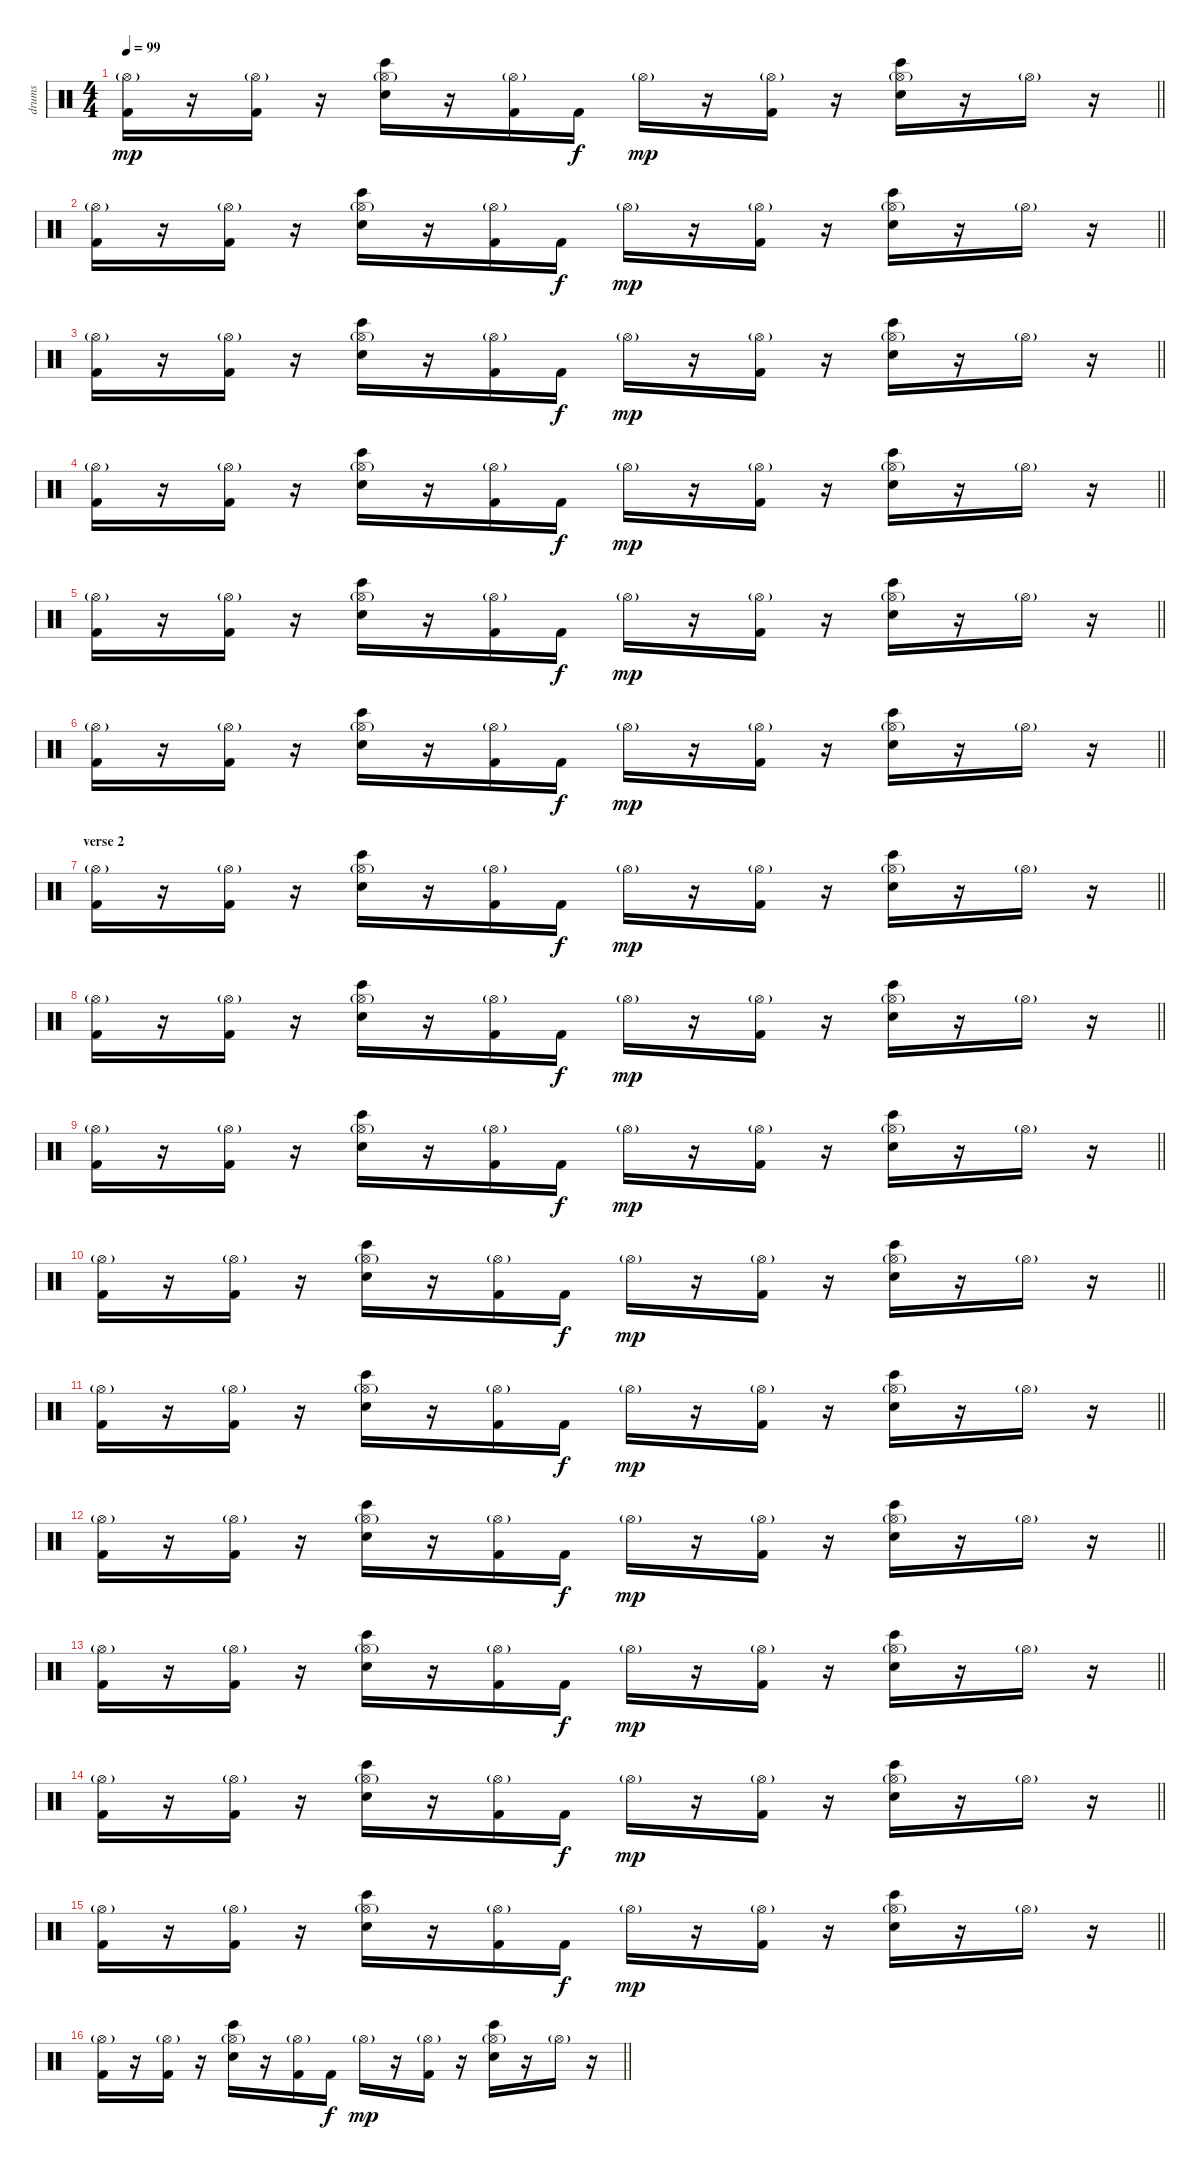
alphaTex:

\track ("drums" "drums") {instrument percussion}
\staff {score}
\articulation defaults
\ts (4 4)
\tempo 99
\clef neutral
\barLineRight lightlight
\ks c
("Kick (hit) 2" "Hi-Hat (open)"{g}).16{dy mp} r.16 ("Kick (hit) 2" "Hi-Hat (open)"{g}).16 r.16 ("Bongo High (hit)" "Hand Clap (hit)" "Hi-Hat (open)"{g}).16 r.16 ("Kick (hit) 2" "Hi-Hat (open)"{g}).16 "Kick (hit) 2".16{dy f} "Hi-Hat (open)"{g}.16{dy mp} r.16 ("Kick (hit) 2" "Hi-Hat (open)"{g}).16 r.16 ("Bongo High (hit)" "Hand Clap (hit)" "Hi-Hat (open)"{g}).16 r.16 "Hi-Hat (open)"{g}.16 r.16 |
\barLineRight lightlight
("Kick (hit) 2" "Hi-Hat (open)"{g}).16 r.16 ("Kick (hit) 2" "Hi-Hat (open)"{g}).16 r.16 ("Bongo High (hit)" "Hand Clap (hit)" "Hi-Hat (open)"{g}).16 r.16 ("Kick (hit) 2" "Hi-Hat (open)"{g}).16 "Kick (hit) 2".16{dy f} "Hi-Hat (open)"{g}.16{dy mp} r.16 ("Kick (hit) 2" "Hi-Hat (open)"{g}).16 r.16 ("Bongo High (hit)" "Hand Clap (hit)" "Hi-Hat (open)"{g}).16 r.16 "Hi-Hat (open)"{g}.16 r.16 |
\barLineRight lightlight
("Kick (hit) 2" "Hi-Hat (open)"{g}).16 r.16 ("Kick (hit) 2" "Hi-Hat (open)"{g}).16 r.16 ("Bongo High (hit)" "Hand Clap (hit)" "Hi-Hat (open)"{g}).16 r.16 ("Kick (hit) 2" "Hi-Hat (open)"{g}).16 "Kick (hit) 2".16{dy f} "Hi-Hat (open)"{g}.16{dy mp} r.16 ("Kick (hit) 2" "Hi-Hat (open)"{g}).16 r.16 ("Bongo High (hit)" "Hand Clap (hit)" "Hi-Hat (open)"{g}).16 r.16 "Hi-Hat (open)"{g}.16 r.16 |
\barLineRight lightlight
("Kick (hit) 2" "Hi-Hat (open)"{g}).16 r.16 ("Kick (hit) 2" "Hi-Hat (open)"{g}).16 r.16 ("Bongo High (hit)" "Hand Clap (hit)" "Hi-Hat (open)"{g}).16 r.16 ("Kick (hit) 2" "Hi-Hat (open)"{g}).16 "Kick (hit) 2".16{dy f} "Hi-Hat (open)"{g}.16{dy mp} r.16 ("Kick (hit) 2" "Hi-Hat (open)"{g}).16 r.16 ("Bongo High (hit)" "Hand Clap (hit)" "Hi-Hat (open)"{g}).16 r.16 "Hi-Hat (open)"{g}.16 r.16 |
\barLineRight lightlight
("Kick (hit) 2" "Hi-Hat (open)"{g}).16 r.16 ("Kick (hit) 2" "Hi-Hat (open)"{g}).16 r.16 ("Bongo High (hit)" "Hand Clap (hit)" "Hi-Hat (open)"{g}).16 r.16 ("Kick (hit) 2" "Hi-Hat (open)"{g}).16 "Kick (hit) 2".16{dy f} "Hi-Hat (open)"{g}.16{dy mp} r.16 ("Kick (hit) 2" "Hi-Hat (open)"{g}).16 r.16 ("Bongo High (hit)" "Hand Clap (hit)" "Hi-Hat (open)"{g}).16 r.16 "Hi-Hat (open)"{g}.16 r.16 |
\barLineRight lightlight
("Kick (hit) 2" "Hi-Hat (open)"{g}).16 r.16 ("Kick (hit) 2" "Hi-Hat (open)"{g}).16 r.16 ("Bongo High (hit)" "Hand Clap (hit)" "Hi-Hat (open)"{g}).16 r.16 ("Kick (hit) 2" "Hi-Hat (open)"{g}).16 "Kick (hit) 2".16{dy f} "Hi-Hat (open)"{g}.16{dy mp} r.16 ("Kick (hit) 2" "Hi-Hat (open)"{g}).16 r.16 ("Bongo High (hit)" "Hand Clap (hit)" "Hi-Hat (open)"{g}).16 r.16 "Hi-Hat (open)"{g}.16 r.16 |
\section ("" "verse 2")
\barLineRight lightlight
("Kick (hit) 2" "Hi-Hat (open)"{g}).16 r.16 ("Kick (hit) 2" "Hi-Hat (open)"{g}).16 r.16 ("Bongo High (hit)" "Hand Clap (hit)" "Hi-Hat (open)"{g}).16 r.16 ("Kick (hit) 2" "Hi-Hat (open)"{g}).16 "Kick (hit) 2".16{dy f} "Hi-Hat (open)"{g}.16{dy mp} r.16 ("Kick (hit) 2" "Hi-Hat (open)"{g}).16 r.16 ("Bongo High (hit)" "Hand Clap (hit)" "Hi-Hat (open)"{g}).16 r.16 "Hi-Hat (open)"{g}.16 r.16 |
\barLineRight lightlight
("Kick (hit) 2" "Hi-Hat (open)"{g}).16 r.16 ("Kick (hit) 2" "Hi-Hat (open)"{g}).16 r.16 ("Bongo High (hit)" "Hand Clap (hit)" "Hi-Hat (open)"{g}).16 r.16 ("Kick (hit) 2" "Hi-Hat (open)"{g}).16 "Kick (hit) 2".16{dy f} "Hi-Hat (open)"{g}.16{dy mp} r.16 ("Kick (hit) 2" "Hi-Hat (open)"{g}).16 r.16 ("Bongo High (hit)" "Hand Clap (hit)" "Hi-Hat (open)"{g}).16 r.16 "Hi-Hat (open)"{g}.16 r.16 |
\barLineRight lightlight
("Kick (hit) 2" "Hi-Hat (open)"{g}).16 r.16 ("Kick (hit) 2" "Hi-Hat (open)"{g}).16 r.16 ("Bongo High (hit)" "Hand Clap (hit)" "Hi-Hat (open)"{g}).16 r.16 ("Kick (hit) 2" "Hi-Hat (open)"{g}).16 "Kick (hit) 2".16{dy f} "Hi-Hat (open)"{g}.16{dy mp} r.16 ("Kick (hit) 2" "Hi-Hat (open)"{g}).16 r.16 ("Bongo High (hit)" "Hand Clap (hit)" "Hi-Hat (open)"{g}).16 r.16 "Hi-Hat (open)"{g}.16 r.16 |
\barLineRight lightlight
("Kick (hit) 2" "Hi-Hat (open)"{g}).16 r.16 ("Kick (hit) 2" "Hi-Hat (open)"{g}).16 r.16 ("Bongo High (hit)" "Hand Clap (hit)" "Hi-Hat (open)"{g}).16 r.16 ("Kick (hit) 2" "Hi-Hat (open)"{g}).16 "Kick (hit) 2".16{dy f} "Hi-Hat (open)"{g}.16{dy mp} r.16 ("Kick (hit) 2" "Hi-Hat (open)"{g}).16 r.16 ("Bongo High (hit)" "Hand Clap (hit)" "Hi-Hat (open)"{g}).16 r.16 "Hi-Hat (open)"{g}.16 r.16 |
\barLineRight lightlight
("Kick (hit) 2" "Hi-Hat (open)"{g}).16 r.16 ("Kick (hit) 2" "Hi-Hat (open)"{g}).16 r.16 ("Bongo High (hit)" "Hand Clap (hit)" "Hi-Hat (open)"{g}).16 r.16 ("Kick (hit) 2" "Hi-Hat (open)"{g}).16 "Kick (hit) 2".16{dy f} "Hi-Hat (open)"{g}.16{dy mp} r.16 ("Kick (hit) 2" "Hi-Hat (open)"{g}).16 r.16 ("Bongo High (hit)" "Hand Clap (hit)" "Hi-Hat (open)"{g}).16 r.16 "Hi-Hat (open)"{g}.16 r.16 |
\barLineRight lightlight
("Kick (hit) 2" "Hi-Hat (open)"{g}).16 r.16 ("Kick (hit) 2" "Hi-Hat (open)"{g}).16 r.16 ("Bongo High (hit)" "Hand Clap (hit)" "Hi-Hat (open)"{g}).16 r.16 ("Kick (hit) 2" "Hi-Hat (open)"{g}).16 "Kick (hit) 2".16{dy f} "Hi-Hat (open)"{g}.16{dy mp} r.16 ("Kick (hit) 2" "Hi-Hat (open)"{g}).16 r.16 ("Bongo High (hit)" "Hand Clap (hit)" "Hi-Hat (open)"{g}).16 r.16 "Hi-Hat (open)"{g}.16 r.16 |
\barLineRight lightlight
("Kick (hit) 2" "Hi-Hat (open)"{g}).16 r.16 ("Kick (hit) 2" "Hi-Hat (open)"{g}).16 r.16 ("Bongo High (hit)" "Hand Clap (hit)" "Hi-Hat (open)"{g}).16 r.16 ("Kick (hit) 2" "Hi-Hat (open)"{g}).16 "Kick (hit) 2".16{dy f} "Hi-Hat (open)"{g}.16{dy mp} r.16 ("Kick (hit) 2" "Hi-Hat (open)"{g}).16 r.16 ("Bongo High (hit)" "Hand Clap (hit)" "Hi-Hat (open)"{g}).16 r.16 "Hi-Hat (open)"{g}.16 r.16 |
\barLineRight lightlight
("Kick (hit) 2" "Hi-Hat (open)"{g}).16 r.16 ("Kick (hit) 2" "Hi-Hat (open)"{g}).16 r.16 ("Bongo High (hit)" "Hand Clap (hit)" "Hi-Hat (open)"{g}).16 r.16 ("Kick (hit) 2" "Hi-Hat (open)"{g}).16 "Kick (hit) 2".16{dy f} "Hi-Hat (open)"{g}.16{dy mp} r.16 ("Kick (hit) 2" "Hi-Hat (open)"{g}).16 r.16 ("Bongo High (hit)" "Hand Clap (hit)" "Hi-Hat (open)"{g}).16 r.16 "Hi-Hat (open)"{g}.16 r.16 |
\barLineRight lightlight
("Kick (hit) 2" "Hi-Hat (open)"{g}).16 r.16 ("Kick (hit) 2" "Hi-Hat (open)"{g}).16 r.16 ("Bongo High (hit)" "Hand Clap (hit)" "Hi-Hat (open)"{g}).16 r.16 ("Kick (hit) 2" "Hi-Hat (open)"{g}).16 "Kick (hit) 2".16{dy f} "Hi-Hat (open)"{g}.16{dy mp} r.16 ("Kick (hit) 2" "Hi-Hat (open)"{g}).16 r.16 ("Bongo High (hit)" "Hand Clap (hit)" "Hi-Hat (open)"{g}).16 r.16 "Hi-Hat (open)"{g}.16 r.16 |
\barLineRight lightlight
("Kick (hit) 2" "Hi-Hat (open)"{g}).16 r.16 ("Kick (hit) 2" "Hi-Hat (open)"{g}).16 r.16 ("Bongo High (hit)" "Hand Clap (hit)" "Hi-Hat (open)"{g}).16 r.16 ("Kick (hit) 2" "Hi-Hat (open)"{g}).16 "Kick (hit) 2".16{dy f} "Hi-Hat (open)"{g}.16{dy mp} r.16 ("Kick (hit) 2" "Hi-Hat (open)"{g}).16 r.16 ("Bongo High (hit)" "Hand Clap (hit)" "Hi-Hat (open)"{g}).16 r.16 "Hi-Hat (open)"{g}.16 r.16
